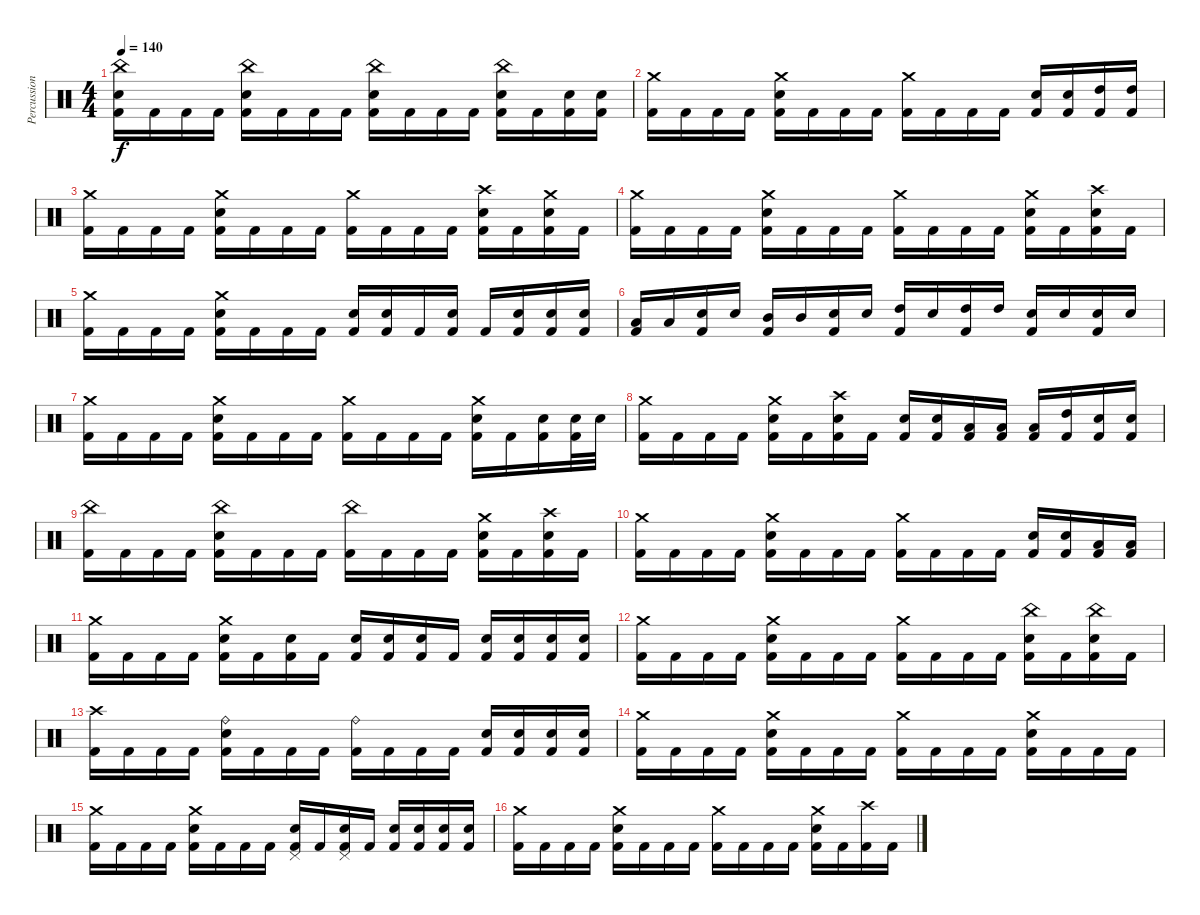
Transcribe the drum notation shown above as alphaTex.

\track ("Percussion" "Percussion") {instrument percussion}
\staff {score}
\articulation defaults
\ts (4 4)
\tempo 140
\clef neutral
\ks c
("China (hit)" "Snare (hit) 2" "Kick (hit) 2").16{dy f} "Kick (hit) 2".16 "Kick (hit) 2".16 "Kick (hit) 2".16 ("China (hit)" "Snare (hit) 2" "Kick (hit) 2").16 "Kick (hit) 2".16 "Kick (hit) 2".16 "Kick (hit) 2".16 ("China (hit)" "Snare (hit) 2" "Kick (hit) 2").16 "Kick (hit) 2".16 "Kick (hit) 2".16 "Kick (hit) 2".16 ("China (hit)" "Snare (hit) 2" "Kick (hit) 2").16 "Kick (hit) 2".16 ("Snare (hit) 2" "Kick (hit) 2").16 ("Snare (hit) 2" "Kick (hit) 2").16 |
("Crash medium (hit)" "Kick (hit) 2").16 "Kick (hit) 2".16 "Kick (hit) 2".16 "Kick (hit) 2".16 ("Crash medium (hit)" "Snare (hit) 2" "Kick (hit) 2").16 "Kick (hit) 2".16 "Kick (hit) 2".16 "Kick (hit) 2".16 ("Crash medium (hit)" "Kick (hit) 2").16 "Kick (hit) 2".16 "Kick (hit) 2".16 "Kick (hit) 2".16 ("Snare (hit) 2" "Kick (hit) 2").16 ("Snare (hit) 2" "Kick (hit) 2").16 ("High Tom (hit)" "Kick (hit) 2").16 ("High Tom (hit)" "Kick (hit) 2").16 |
("Crash medium (hit)" "Kick (hit) 2").16 "Kick (hit) 2".16 "Kick (hit) 2".16 "Kick (hit) 2".16 ("Crash medium (hit)" "Snare (hit) 2" "Kick (hit) 2").16 "Kick (hit) 2".16 "Kick (hit) 2".16 "Kick (hit) 2".16 ("Crash medium (hit)" "Kick (hit) 2").16 "Kick (hit) 2".16 "Kick (hit) 2".16 "Kick (hit) 2".16 ("Crash high (hit)" "Snare (hit) 2" "Kick (hit) 2").16 "Kick (hit) 2".16 ("Crash medium (hit)" "Snare (hit) 2" "Kick (hit) 2").16 "Kick (hit) 2".16 |
("Crash medium (hit)" "Kick (hit) 2").16 "Kick (hit) 2".16 "Kick (hit) 2".16 "Kick (hit) 2".16 ("Crash medium (hit)" "Snare (hit) 2" "Kick (hit) 2").16 "Kick (hit) 2".16 "Kick (hit) 2".16 "Kick (hit) 2".16 ("Crash medium (hit)" "Kick (hit) 2").16 "Kick (hit) 2".16 "Kick (hit) 2".16 "Kick (hit) 2".16 ("Crash medium (hit)" "Snare (hit) 2" "Kick (hit) 2").16 "Kick (hit) 2".16 ("Crash high (hit)" "Snare (hit) 2" "Kick (hit) 2").16 "Kick (hit) 2".16 |
("Crash medium (hit)" "Kick (hit) 2").16 "Kick (hit) 2".16 "Kick (hit) 2".16 "Kick (hit) 2".16 ("Crash medium (hit)" "Snare (hit) 2" "Kick (hit) 2").16 "Kick (hit) 2".16 "Kick (hit) 2".16 "Kick (hit) 2".16 ("Snare (hit) 2" "Kick (hit) 2").16 ("Snare (hit) 2" "Kick (hit) 2").16 "Kick (hit) 2".16 ("Snare (hit) 2" "Kick (hit) 2").16 "Kick (hit) 2".16 ("Snare (hit) 2" "Kick (hit) 2").16 ("Snare (hit) 2" "Kick (hit) 2").16 ("Snare (hit) 2" "Kick (hit) 2").16 |
("Low Tom (hit)" "Kick (hit) 2").16 "Low Tom (hit)".16 ("Snare (hit) 2" "Kick (hit) 2").16 "Snare (hit) 2".16 ("Mid Tom (hit)" "Kick (hit) 2").16 "Mid Tom (hit)".16 ("Snare (hit) 2" "Kick (hit) 2").16 "Snare (hit) 2".16 ("High Tom (hit)" "Kick (hit) 2").16 "Snare (hit) 2".16 ("High Tom (hit)" "Kick (hit) 2").16 "High Tom (hit)".16 ("Snare (hit) 2" "Kick (hit) 2").16 "Snare (hit) 2".16 ("Snare (hit) 2" "Kick (hit) 2").16 "Snare (hit) 2".16 |
("Crash medium (hit)" "Kick (hit) 2").16 "Kick (hit) 2".16 "Kick (hit) 2".16 "Kick (hit) 2".16 ("Crash medium (hit)" "Snare (hit) 2" "Kick (hit) 2").16 "Kick (hit) 2".16 "Kick (hit) 2".16 "Kick (hit) 2".16 ("Crash medium (hit)" "Kick (hit) 2").16 "Kick (hit) 2".16 "Kick (hit) 2".16 "Kick (hit) 2".16 ("Crash medium (hit)" "Snare (hit) 2" "Kick (hit) 2").16 "Kick (hit) 2".16 ("Snare (hit) 2" "Kick (hit) 2").16 ("Snare (hit) 2" "Kick (hit) 2").32 "Snare (hit) 2".32 |
("Crash medium (hit)" "Kick (hit) 2").16 "Kick (hit) 2".16 "Kick (hit) 2".16 "Kick (hit) 2".16 ("Crash medium (hit)" "Snare (hit) 2" "Kick (hit) 2").16 "Kick (hit) 2".16 ("Crash high (hit)" "Snare (hit) 2" "Kick (hit) 2").16 "Kick (hit) 2".16 ("Snare (hit) 2" "Kick (hit) 2").16 ("Snare (hit) 2" "Kick (hit) 2").16 ("Low Tom (hit)" "Kick (hit) 2").16 ("Low Tom (hit)" "Kick (hit) 2").16 ("Low Tom (hit)" "Kick (hit) 2").16 ("High Tom (hit)" "Kick (hit) 2").16 ("Snare (hit) 2" "Kick (hit) 2").16 ("Snare (hit) 2" "Kick (hit) 2").16 |
("China (hit)" "Kick (hit) 2").16 "Kick (hit) 2".16 "Kick (hit) 2".16 "Kick (hit) 2".16 ("China (hit)" "Snare (hit) 2" "Kick (hit) 2").16 "Kick (hit) 2".16 "Kick (hit) 2".16 "Kick (hit) 2".16 ("China (hit)" "Kick (hit) 2").16 "Kick (hit) 2".16 "Kick (hit) 2".16 "Kick (hit) 2".16 ("Crash medium (hit)" "Snare (hit) 2" "Kick (hit) 2").16 "Kick (hit) 2".16 ("Crash high (hit)" "Snare (hit) 2" "Kick (hit) 2").16 "Kick (hit) 2".16 |
("Crash medium (hit)" "Kick (hit) 2").16 "Kick (hit) 2".16 "Kick (hit) 2".16 "Kick (hit) 2".16 ("Crash medium (hit)" "Snare (hit) 2" "Kick (hit) 2").16 "Kick (hit) 2".16 "Kick (hit) 2".16 "Kick (hit) 2".16 ("Crash medium (hit)" "Kick (hit) 2").16 "Kick (hit) 2".16 "Kick (hit) 2".16 "Kick (hit) 2".16 ("Snare (hit) 2" "Kick (hit) 2").16 ("Snare (hit) 2" "Kick (hit) 2").16 ("Low Tom (hit)" "Kick (hit) 2").16 ("Low Tom (hit)" "Kick (hit) 2").16 |
("Crash medium (hit)" "Kick (hit) 2").16 "Kick (hit) 2".16 "Kick (hit) 2".16 "Kick (hit) 2".16 ("Crash medium (hit)" "Snare (hit) 2" "Kick (hit) 2").16 "Kick (hit) 2".16 ("Snare (hit) 2" "Kick (hit) 2").16 "Kick (hit) 2".16 ("Snare (hit) 2" "Kick (hit) 2").16 ("Snare (hit) 2" "Kick (hit) 2").16 ("Snare (hit) 2" "Kick (hit) 2").16 "Kick (hit) 2".16 ("Snare (hit) 2" "Kick (hit) 2").16 ("Snare (hit) 2" "Kick (hit) 2").16 ("Snare (hit) 2" "Kick (hit) 2").16 ("Snare (hit) 2" "Kick (hit) 2").16 |
("Crash medium (hit)" "Kick (hit) 2").16 "Kick (hit) 2".16 "Kick (hit) 2".16 "Kick (hit) 2".16 ("Crash medium (hit)" "Snare (hit) 2" "Kick (hit) 2").16 "Kick (hit) 2".16 "Kick (hit) 2".16 "Kick (hit) 2".16 ("Crash medium (hit)" "Kick (hit) 2").16 "Kick (hit) 2".16 "Kick (hit) 2".16 "Kick (hit) 2".16 ("China (hit)" "Snare (hit) 2" "Kick (hit) 2").16 "Kick (hit) 2".16 ("China (hit)" "Snare (hit) 2" "Kick (hit) 2").16 "Kick (hit) 2".16 |
("Crash high (hit)" "Kick (hit) 2").16 "Kick (hit) 2".16 "Kick (hit) 2".16 "Kick (hit) 2".16 ("Ride (bell)" "Snare (hit) 2" "Kick (hit) 2").16 "Kick (hit) 2".16 "Kick (hit) 2".16 "Kick (hit) 2".16 ("Ride (bell)" "Kick (hit) 2").16 "Kick (hit) 2".16 "Kick (hit) 2".16 "Kick (hit) 2".16 ("Snare (hit) 2" "Kick (hit) 2").16 ("Snare (hit) 2" "Kick (hit) 2").16 ("Snare (hit) 2" "Kick (hit) 2").16 ("Snare (hit) 2" "Kick (hit) 2").16 |
("Crash medium (hit)" "Kick (hit) 2").16 "Kick (hit) 2".16 "Kick (hit) 2".16 "Kick (hit) 2".16 ("Crash medium (hit)" "Snare (hit) 2" "Kick (hit) 2").16 "Kick (hit) 2".16 "Kick (hit) 2".16 "Kick (hit) 2".16 ("Crash medium (hit)" "Kick (hit) 2").16 "Kick (hit) 2".16 "Kick (hit) 2".16 "Kick (hit) 2".16 ("Crash medium (hit)" "Snare (hit) 2" "Kick (hit) 2").16 "Kick (hit) 2".16 "Kick (hit) 2".16 "Kick (hit) 2".16 |
("Crash medium (hit)" "Kick (hit) 2").16 "Kick (hit) 2".16 "Kick (hit) 2".16 "Kick (hit) 2".16 ("Crash medium (hit)" "Snare (hit) 2" "Kick (hit) 2").16 "Kick (hit) 2".16 "Kick (hit) 2".16 "Kick (hit) 2".16 ("Pedal Hi-Hat (hit)" "Snare (hit) 2" "Kick (hit) 2").16 "Kick (hit) 2".16 ("Pedal Hi-Hat (hit)" "Snare (hit) 2" "Kick (hit) 2").16 "Kick (hit) 2".16 ("Snare (hit) 2" "Kick (hit) 2").16 ("Snare (hit) 2" "Kick (hit) 2").16 ("Snare (hit) 2" "Kick (hit) 2").16 ("Snare (hit) 2" "Kick (hit) 2").16 |
("Crash medium (hit)" "Kick (hit) 2").16 "Kick (hit) 2".16 "Kick (hit) 2".16 "Kick (hit) 2".16 ("Crash medium (hit)" "Snare (hit) 2" "Kick (hit) 2").16 "Kick (hit) 2".16 "Kick (hit) 2".16 "Kick (hit) 2".16 ("Crash medium (hit)" "Kick (hit) 2").16 "Kick (hit) 2".16 "Kick (hit) 2".16 "Kick (hit) 2".16 ("Crash medium (hit)" "Snare (hit) 2" "Kick (hit) 2").16 "Kick (hit) 2".16 ("Crash high (hit)" "Kick (hit) 2").16 "Kick (hit) 2".16
